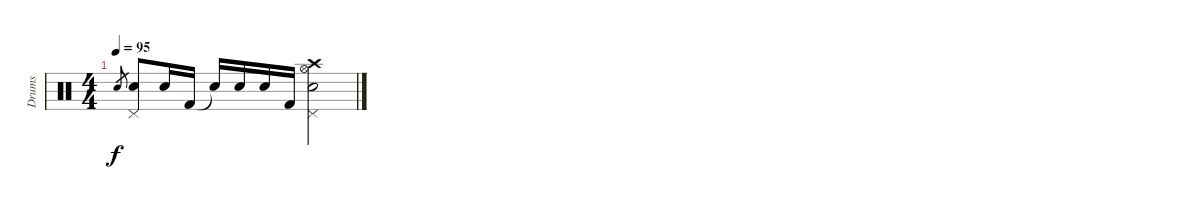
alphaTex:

\track ("Drums" "Drums") {instrument percussion}
\staff {score}
\articulation defaults
\ts (4 4)
\tempo 95
\clef neutral
\ks c "Snare (hit) 2".8{gr dy f}
("Snare (hit) 2" "Pedal Hi-Hat (hit)").8 "Snare (hit) 2".16 "Kick (hit) 2".16 "Snare (hit) 2"{t}.16 "Snare (hit) 2".16 "Snare (hit) 2".16 "Kick (hit) 2".16 ("Snare (hit) 2" "Pedal Hi-Hat (hit)" "Hi-Hat (open)" "Crash high (hit)").2
